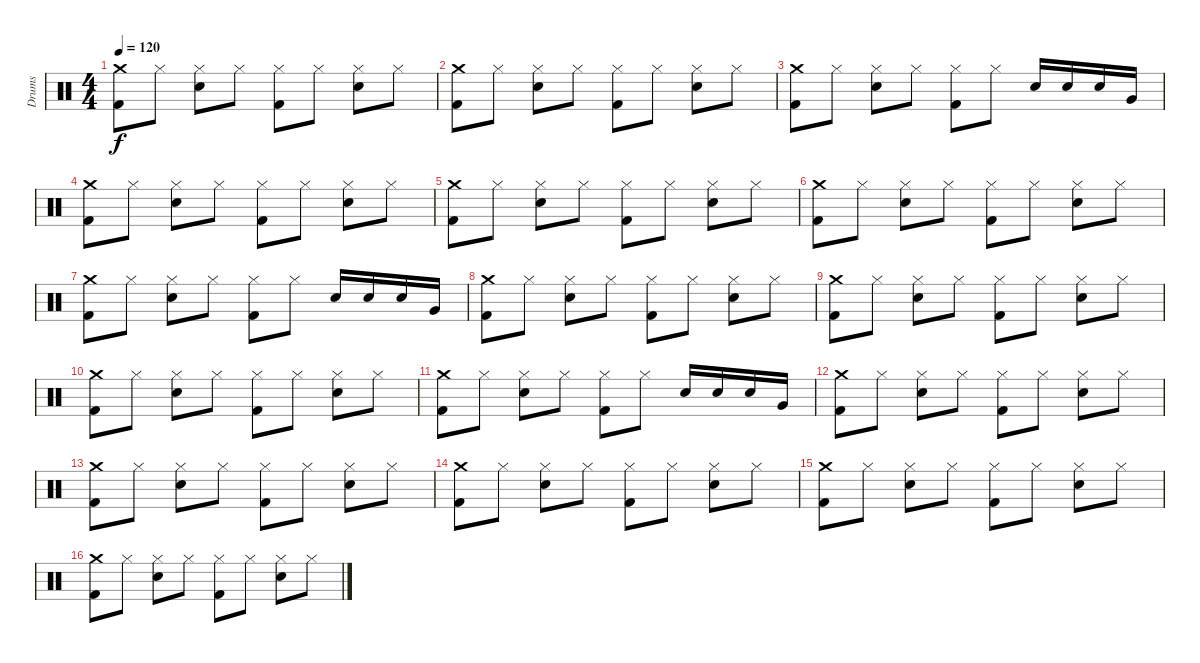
\track ("Drums" "Drums") {instrument percussion}
\staff {score}
\articulation defaults
\ts (4 4)
\tempo 120
\clef neutral
\ks c
("Crash medium (hit)" "Kick (hit) 2").8{dy f} "Hi-Hat (closed)".8 ("Hi-Hat (closed)" "Snare (hit) 2").8 "Hi-Hat (closed)".8 ("Hi-Hat (closed)" "Kick (hit) 2").8 "Hi-Hat (closed)".8 ("Hi-Hat (closed)" "Snare (hit) 2").8 "Hi-Hat (closed)".8 |
("Crash medium (hit)" "Kick (hit) 2").8 "Hi-Hat (closed)".8 ("Hi-Hat (closed)" "Snare (hit) 2").8 "Hi-Hat (closed)".8 ("Hi-Hat (closed)" "Kick (hit) 2").8 "Hi-Hat (closed)".8 ("Hi-Hat (closed)" "Snare (hit) 2").8 "Hi-Hat (closed)".8 |
("Crash medium (hit)" "Kick (hit) 2").8 "Hi-Hat (closed)".8 ("Hi-Hat (closed)" "Snare (hit) 2").8 "Hi-Hat (closed)".8 ("Hi-Hat (closed)" "Kick (hit) 2").8 "Hi-Hat (closed)".8 "Snare (hit) 2".16 "Snare (hit) 2".16 "Snare (hit) 2".16 "Very Low Tom (hit)".16 |
("Crash medium (hit)" "Kick (hit) 2").8 "Hi-Hat (closed)".8 ("Hi-Hat (closed)" "Snare (hit) 2").8 "Hi-Hat (closed)".8 ("Hi-Hat (closed)" "Kick (hit) 2").8 "Hi-Hat (closed)".8 ("Hi-Hat (closed)" "Snare (hit) 2").8 "Hi-Hat (closed)".8 |
("Crash medium (hit)" "Kick (hit) 2").8 "Hi-Hat (closed)".8 ("Hi-Hat (closed)" "Snare (hit) 2").8 "Hi-Hat (closed)".8 ("Hi-Hat (closed)" "Kick (hit) 2").8 "Hi-Hat (closed)".8 ("Hi-Hat (closed)" "Snare (hit) 2").8 "Hi-Hat (closed)".8 |
("Crash medium (hit)" "Kick (hit) 2").8 "Hi-Hat (closed)".8 ("Hi-Hat (closed)" "Snare (hit) 2").8 "Hi-Hat (closed)".8 ("Hi-Hat (closed)" "Kick (hit) 2").8 "Hi-Hat (closed)".8 ("Hi-Hat (closed)" "Snare (hit) 2").8 "Hi-Hat (closed)".8 |
("Crash medium (hit)" "Kick (hit) 2").8 "Hi-Hat (closed)".8 ("Hi-Hat (closed)" "Snare (hit) 2").8 "Hi-Hat (closed)".8 ("Hi-Hat (closed)" "Kick (hit) 2").8 "Hi-Hat (closed)".8 "Snare (hit) 2".16 "Snare (hit) 2".16 "Snare (hit) 2".16 "Very Low Tom (hit)".16 |
("Crash medium (hit)" "Kick (hit) 2").8 "Hi-Hat (closed)".8 ("Hi-Hat (closed)" "Snare (hit) 2").8 "Hi-Hat (closed)".8 ("Hi-Hat (closed)" "Kick (hit) 2").8 "Hi-Hat (closed)".8 ("Hi-Hat (closed)" "Snare (hit) 2").8 "Hi-Hat (closed)".8 |
("Crash medium (hit)" "Kick (hit) 2").8 "Hi-Hat (closed)".8 ("Hi-Hat (closed)" "Snare (hit) 2").8 "Hi-Hat (closed)".8 ("Hi-Hat (closed)" "Kick (hit) 2").8 "Hi-Hat (closed)".8 ("Hi-Hat (closed)" "Snare (hit) 2").8 "Hi-Hat (closed)".8 |
("Crash medium (hit)" "Kick (hit) 2").8 "Hi-Hat (closed)".8 ("Hi-Hat (closed)" "Snare (hit) 2").8 "Hi-Hat (closed)".8 ("Hi-Hat (closed)" "Kick (hit) 2").8 "Hi-Hat (closed)".8 ("Hi-Hat (closed)" "Snare (hit) 2").8 "Hi-Hat (closed)".8 |
("Crash medium (hit)" "Kick (hit) 2").8 "Hi-Hat (closed)".8 ("Hi-Hat (closed)" "Snare (hit) 2").8 "Hi-Hat (closed)".8 ("Hi-Hat (closed)" "Kick (hit) 2").8 "Hi-Hat (closed)".8 "Snare (hit) 2".16 "Snare (hit) 2".16 "Snare (hit) 2".16 "Very Low Tom (hit)".16 |
("Crash medium (hit)" "Kick (hit) 2").8 "Hi-Hat (closed)".8 ("Hi-Hat (closed)" "Snare (hit) 2").8 "Hi-Hat (closed)".8 ("Hi-Hat (closed)" "Kick (hit) 2").8 "Hi-Hat (closed)".8 ("Hi-Hat (closed)" "Snare (hit) 2").8 "Hi-Hat (closed)".8 |
("Crash medium (hit)" "Kick (hit) 2").8 "Hi-Hat (closed)".8 ("Hi-Hat (closed)" "Snare (hit) 2").8 "Hi-Hat (closed)".8 ("Hi-Hat (closed)" "Kick (hit) 2").8 "Hi-Hat (closed)".8 ("Hi-Hat (closed)" "Snare (hit) 2").8 "Hi-Hat (closed)".8 |
("Crash medium (hit)" "Kick (hit) 2").8 "Hi-Hat (closed)".8 ("Hi-Hat (closed)" "Snare (hit) 2").8 "Hi-Hat (closed)".8 ("Hi-Hat (closed)" "Kick (hit) 2").8 "Hi-Hat (closed)".8 ("Hi-Hat (closed)" "Snare (hit) 2").8 "Hi-Hat (closed)".8 |
("Crash medium (hit)" "Kick (hit) 2").8 "Hi-Hat (closed)".8 ("Hi-Hat (closed)" "Snare (hit) 2").8 "Hi-Hat (closed)".8 ("Hi-Hat (closed)" "Kick (hit) 2").8 "Hi-Hat (closed)".8 ("Hi-Hat (closed)" "Snare (hit) 2").8 "Hi-Hat (closed)".8 |
("Crash medium (hit)" "Kick (hit) 2").8 "Hi-Hat (closed)".8 ("Hi-Hat (closed)" "Snare (hit) 2").8 "Hi-Hat (closed)".8 ("Hi-Hat (closed)" "Kick (hit) 2").8 "Hi-Hat (closed)".8 ("Hi-Hat (closed)" "Snare (hit) 2").8 "Hi-Hat (closed)".8
